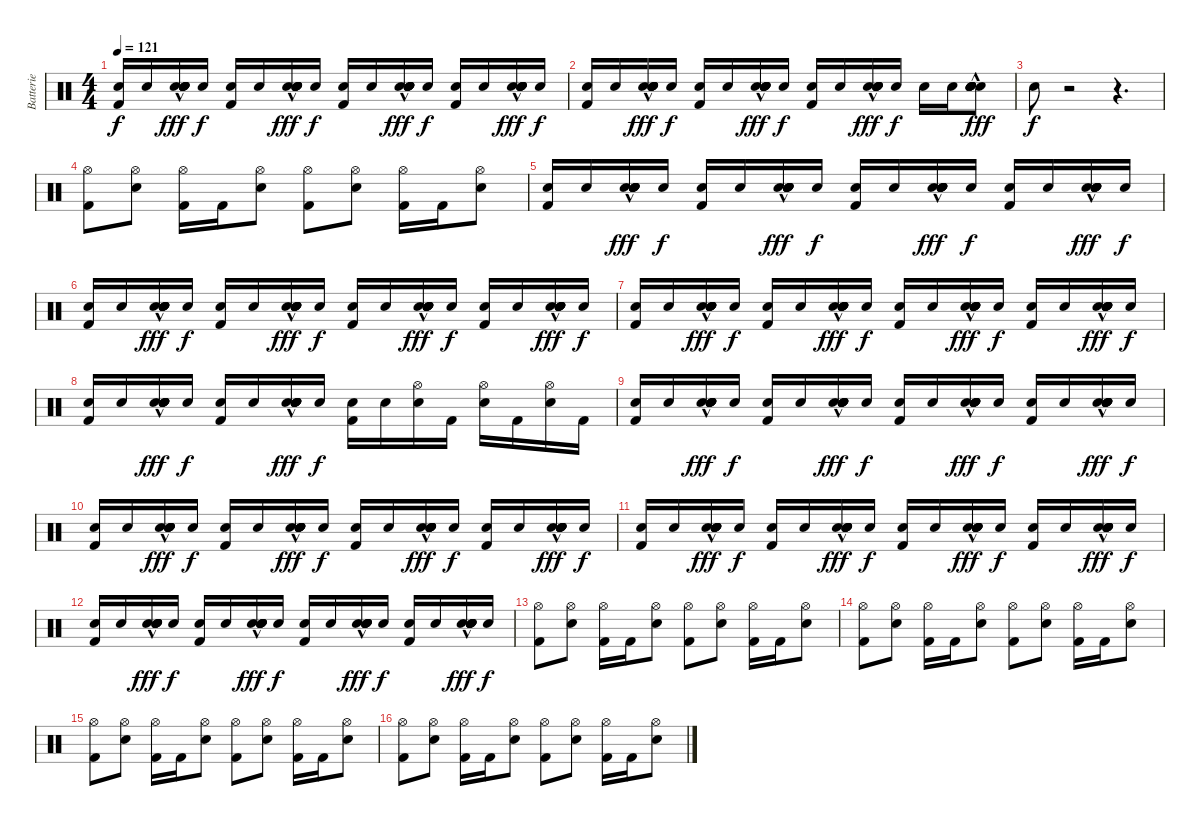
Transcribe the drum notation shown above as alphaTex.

\track ("Batterie" "Batterie") {instrument percussion}
\staff {score}
\articulation defaults
\ts (4 4)
\tempo 121
\clef neutral
\ks c
("Kick (hit) 2" "Electric Snare (hit)").16{dy f} "Electric Snare (hit)".16 ("Electric Snare (hit)"{hac} "Electric Snare (hit)"{hac} "Electric Snare (hit)"{hac} "Electric Snare (hit)"{hac} "Electric Snare (hit)"{hac} "Electric Snare (hit)"{hac}).16{dy fff} "Electric Snare (hit)".16{dy f} ("Kick (hit) 2" "Electric Snare (hit)").16 "Electric Snare (hit)".16 ("Electric Snare (hit)"{hac} "Electric Snare (hit)"{hac} "Electric Snare (hit)"{hac} "Electric Snare (hit)"{hac} "Electric Snare (hit)"{hac} "Electric Snare (hit)"{hac}).16{dy fff} "Electric Snare (hit)".16{dy f} ("Kick (hit) 2" "Electric Snare (hit)").16 "Electric Snare (hit)".16 ("Electric Snare (hit)"{hac} "Electric Snare (hit)"{hac} "Electric Snare (hit)"{hac} "Electric Snare (hit)"{hac} "Electric Snare (hit)"{hac} "Electric Snare (hit)"{hac}).16{dy fff} "Electric Snare (hit)".16{dy f} ("Kick (hit) 2" "Electric Snare (hit)").16 "Electric Snare (hit)".16 ("Electric Snare (hit)"{hac} "Electric Snare (hit)"{hac} "Electric Snare (hit)"{hac} "Electric Snare (hit)"{hac} "Electric Snare (hit)"{hac} "Electric Snare (hit)"{hac}).16{dy fff} "Electric Snare (hit)".16{dy f} |
("Kick (hit) 2" "Electric Snare (hit)").16 "Electric Snare (hit)".16 ("Electric Snare (hit)"{hac} "Electric Snare (hit)"{hac} "Electric Snare (hit)"{hac} "Electric Snare (hit)"{hac} "Electric Snare (hit)"{hac} "Electric Snare (hit)"{hac}).16{dy fff} "Electric Snare (hit)".16{dy f} ("Kick (hit) 2" "Electric Snare (hit)").16 "Electric Snare (hit)".16 ("Electric Snare (hit)"{hac} "Electric Snare (hit)"{hac} "Electric Snare (hit)"{hac} "Electric Snare (hit)"{hac} "Electric Snare (hit)"{hac} "Electric Snare (hit)"{hac}).16{dy fff} "Electric Snare (hit)".16{dy f} ("Kick (hit) 2" "Electric Snare (hit)").16 "Electric Snare (hit)".16 ("Electric Snare (hit)"{hac} "Electric Snare (hit)"{hac} "Electric Snare (hit)"{hac} "Electric Snare (hit)"{hac} "Electric Snare (hit)"{hac} "Electric Snare (hit)"{hac}).16{dy fff} "Electric Snare (hit)".16{dy f} "Electric Snare (hit)".16 "Electric Snare (hit)".16 ("Electric Snare (hit)"{hac} "Electric Snare (hit)"{hac} "Electric Snare (hit)"{hac} "Electric Snare (hit)"{hac} "Electric Snare (hit)"{hac} "Electric Snare (hit)"{hac}).8{dy fff} |
"Electric Snare (hit)".8{dy f} r.2 r.4{d} |
("Kick (hit) 2" "Hi-Hat (open)").8 ("Electric Snare (hit)" "Hi-Hat (open)").8 ("Kick (hit) 2" "Hi-Hat (open)").16 "Kick (hit) 2".16 ("Electric Snare (hit)" "Hi-Hat (open)").8 ("Kick (hit) 2" "Hi-Hat (open)").8 ("Electric Snare (hit)" "Hi-Hat (open)").8 ("Kick (hit) 2" "Hi-Hat (open)").16 "Kick (hit) 2".16 ("Electric Snare (hit)" "Hi-Hat (open)").8 |
("Kick (hit) 2" "Electric Snare (hit)").16 "Electric Snare (hit)".16 ("Electric Snare (hit)"{hac} "Electric Snare (hit)"{hac} "Electric Snare (hit)"{hac} "Electric Snare (hit)"{hac} "Electric Snare (hit)"{hac} "Electric Snare (hit)"{hac}).16{dy fff} "Electric Snare (hit)".16{dy f} ("Kick (hit) 2" "Electric Snare (hit)").16 "Electric Snare (hit)".16 ("Electric Snare (hit)"{hac} "Electric Snare (hit)"{hac} "Electric Snare (hit)"{hac} "Electric Snare (hit)"{hac} "Electric Snare (hit)"{hac} "Electric Snare (hit)"{hac}).16{dy fff} "Electric Snare (hit)".16{dy f} ("Kick (hit) 2" "Electric Snare (hit)").16 "Electric Snare (hit)".16 ("Electric Snare (hit)"{hac} "Electric Snare (hit)"{hac} "Electric Snare (hit)"{hac} "Electric Snare (hit)"{hac} "Electric Snare (hit)"{hac} "Electric Snare (hit)"{hac}).16{dy fff} "Electric Snare (hit)".16{dy f} ("Kick (hit) 2" "Electric Snare (hit)").16 "Electric Snare (hit)".16 ("Electric Snare (hit)"{hac} "Electric Snare (hit)"{hac} "Electric Snare (hit)"{hac} "Electric Snare (hit)"{hac} "Electric Snare (hit)"{hac} "Electric Snare (hit)"{hac}).16{dy fff} "Electric Snare (hit)".16{dy f} |
("Kick (hit) 2" "Electric Snare (hit)").16 "Electric Snare (hit)".16 ("Electric Snare (hit)"{hac} "Electric Snare (hit)"{hac} "Electric Snare (hit)"{hac} "Electric Snare (hit)"{hac} "Electric Snare (hit)"{hac} "Electric Snare (hit)"{hac}).16{dy fff} "Electric Snare (hit)".16{dy f} ("Kick (hit) 2" "Electric Snare (hit)").16 "Electric Snare (hit)".16 ("Electric Snare (hit)"{hac} "Electric Snare (hit)"{hac} "Electric Snare (hit)"{hac} "Electric Snare (hit)"{hac} "Electric Snare (hit)"{hac} "Electric Snare (hit)"{hac}).16{dy fff} "Electric Snare (hit)".16{dy f} ("Kick (hit) 2" "Electric Snare (hit)").16 "Electric Snare (hit)".16 ("Electric Snare (hit)"{hac} "Electric Snare (hit)"{hac} "Electric Snare (hit)"{hac} "Electric Snare (hit)"{hac} "Electric Snare (hit)"{hac} "Electric Snare (hit)"{hac}).16{dy fff} "Electric Snare (hit)".16{dy f} ("Kick (hit) 2" "Electric Snare (hit)").16 "Electric Snare (hit)".16 ("Electric Snare (hit)"{hac} "Electric Snare (hit)"{hac} "Electric Snare (hit)"{hac} "Electric Snare (hit)"{hac} "Electric Snare (hit)"{hac} "Electric Snare (hit)"{hac}).16{dy fff} "Electric Snare (hit)".16{dy f} |
("Kick (hit) 2" "Electric Snare (hit)").16 "Electric Snare (hit)".16 ("Electric Snare (hit)"{hac} "Electric Snare (hit)"{hac} "Electric Snare (hit)"{hac} "Electric Snare (hit)"{hac} "Electric Snare (hit)"{hac} "Electric Snare (hit)"{hac}).16{dy fff} "Electric Snare (hit)".16{dy f} ("Kick (hit) 2" "Electric Snare (hit)").16 "Electric Snare (hit)".16 ("Electric Snare (hit)"{hac} "Electric Snare (hit)"{hac} "Electric Snare (hit)"{hac} "Electric Snare (hit)"{hac} "Electric Snare (hit)"{hac} "Electric Snare (hit)"{hac}).16{dy fff} "Electric Snare (hit)".16{dy f} ("Kick (hit) 2" "Electric Snare (hit)").16 "Electric Snare (hit)".16 ("Electric Snare (hit)"{hac} "Electric Snare (hit)"{hac} "Electric Snare (hit)"{hac} "Electric Snare (hit)"{hac} "Electric Snare (hit)"{hac} "Electric Snare (hit)"{hac}).16{dy fff} "Electric Snare (hit)".16{dy f} ("Kick (hit) 2" "Electric Snare (hit)").16 "Electric Snare (hit)".16 ("Electric Snare (hit)"{hac} "Electric Snare (hit)"{hac} "Electric Snare (hit)"{hac} "Electric Snare (hit)"{hac} "Electric Snare (hit)"{hac} "Electric Snare (hit)"{hac}).16{dy fff} "Electric Snare (hit)".16{dy f} |
("Kick (hit) 2" "Electric Snare (hit)").16 "Electric Snare (hit)".16 ("Electric Snare (hit)"{hac} "Electric Snare (hit)"{hac} "Electric Snare (hit)"{hac} "Electric Snare (hit)"{hac} "Electric Snare (hit)"{hac} "Electric Snare (hit)"{hac}).16{dy fff} "Electric Snare (hit)".16{dy f} ("Kick (hit) 2" "Electric Snare (hit)").16 "Electric Snare (hit)".16 ("Electric Snare (hit)"{hac} "Electric Snare (hit)"{hac} "Electric Snare (hit)"{hac} "Electric Snare (hit)"{hac} "Electric Snare (hit)"{hac} "Electric Snare (hit)"{hac}).16{dy fff} "Electric Snare (hit)".16{dy f} ("Kick (hit) 2" "Electric Snare (hit)").16 "Electric Snare (hit)".16 ("Hi-Hat (open)" "Electric Snare (hit)").16 "Kick (hit) 2".16 ("Hi-Hat (open)" "Electric Snare (hit)").16 "Kick (hit) 2".16 ("Hi-Hat (open)" "Electric Snare (hit)").16 "Kick (hit) 2".16 |
("Kick (hit) 2" "Electric Snare (hit)").16 "Electric Snare (hit)".16 ("Electric Snare (hit)"{hac} "Electric Snare (hit)"{hac} "Electric Snare (hit)"{hac} "Electric Snare (hit)"{hac} "Electric Snare (hit)"{hac} "Electric Snare (hit)"{hac}).16{dy fff} "Electric Snare (hit)".16{dy f} ("Kick (hit) 2" "Electric Snare (hit)").16 "Electric Snare (hit)".16 ("Electric Snare (hit)"{hac} "Electric Snare (hit)"{hac} "Electric Snare (hit)"{hac} "Electric Snare (hit)"{hac} "Electric Snare (hit)"{hac} "Electric Snare (hit)"{hac}).16{dy fff} "Electric Snare (hit)".16{dy f} ("Kick (hit) 2" "Electric Snare (hit)").16 "Electric Snare (hit)".16 ("Electric Snare (hit)"{hac} "Electric Snare (hit)"{hac} "Electric Snare (hit)"{hac} "Electric Snare (hit)"{hac} "Electric Snare (hit)"{hac} "Electric Snare (hit)"{hac}).16{dy fff} "Electric Snare (hit)".16{dy f} ("Kick (hit) 2" "Electric Snare (hit)").16 "Electric Snare (hit)".16 ("Electric Snare (hit)"{hac} "Electric Snare (hit)"{hac} "Electric Snare (hit)"{hac} "Electric Snare (hit)"{hac} "Electric Snare (hit)"{hac} "Electric Snare (hit)"{hac}).16{dy fff} "Electric Snare (hit)".16{dy f} |
("Kick (hit) 2" "Electric Snare (hit)").16 "Electric Snare (hit)".16 ("Electric Snare (hit)"{hac} "Electric Snare (hit)"{hac} "Electric Snare (hit)"{hac} "Electric Snare (hit)"{hac} "Electric Snare (hit)"{hac} "Electric Snare (hit)"{hac}).16{dy fff} "Electric Snare (hit)".16{dy f} ("Kick (hit) 2" "Electric Snare (hit)").16 "Electric Snare (hit)".16 ("Electric Snare (hit)"{hac} "Electric Snare (hit)"{hac} "Electric Snare (hit)"{hac} "Electric Snare (hit)"{hac} "Electric Snare (hit)"{hac} "Electric Snare (hit)"{hac}).16{dy fff} "Electric Snare (hit)".16{dy f} ("Kick (hit) 2" "Electric Snare (hit)").16 "Electric Snare (hit)".16 ("Electric Snare (hit)"{hac} "Electric Snare (hit)"{hac} "Electric Snare (hit)"{hac} "Electric Snare (hit)"{hac} "Electric Snare (hit)"{hac} "Electric Snare (hit)"{hac}).16{dy fff} "Electric Snare (hit)".16{dy f} ("Kick (hit) 2" "Electric Snare (hit)").16 "Electric Snare (hit)".16 ("Electric Snare (hit)"{hac} "Electric Snare (hit)"{hac} "Electric Snare (hit)"{hac} "Electric Snare (hit)"{hac} "Electric Snare (hit)"{hac} "Electric Snare (hit)"{hac}).16{dy fff} "Electric Snare (hit)".16{dy f} |
("Kick (hit) 2" "Electric Snare (hit)").16 "Electric Snare (hit)".16 ("Electric Snare (hit)"{hac} "Electric Snare (hit)"{hac} "Electric Snare (hit)"{hac} "Electric Snare (hit)"{hac} "Electric Snare (hit)"{hac} "Electric Snare (hit)"{hac}).16{dy fff} "Electric Snare (hit)".16{dy f} ("Kick (hit) 2" "Electric Snare (hit)").16 "Electric Snare (hit)".16 ("Electric Snare (hit)"{hac} "Electric Snare (hit)"{hac} "Electric Snare (hit)"{hac} "Electric Snare (hit)"{hac} "Electric Snare (hit)"{hac} "Electric Snare (hit)"{hac}).16{dy fff} "Electric Snare (hit)".16{dy f} ("Kick (hit) 2" "Electric Snare (hit)").16 "Electric Snare (hit)".16 ("Electric Snare (hit)"{hac} "Electric Snare (hit)"{hac} "Electric Snare (hit)"{hac} "Electric Snare (hit)"{hac} "Electric Snare (hit)"{hac} "Electric Snare (hit)"{hac}).16{dy fff} "Electric Snare (hit)".16{dy f} ("Kick (hit) 2" "Electric Snare (hit)").16 "Electric Snare (hit)".16 ("Electric Snare (hit)"{hac} "Electric Snare (hit)"{hac} "Electric Snare (hit)"{hac} "Electric Snare (hit)"{hac} "Electric Snare (hit)"{hac} "Electric Snare (hit)"{hac}).16{dy fff} "Electric Snare (hit)".16{dy f} |
("Kick (hit) 2" "Electric Snare (hit)").16 "Electric Snare (hit)".16 ("Electric Snare (hit)"{hac} "Electric Snare (hit)"{hac} "Electric Snare (hit)"{hac} "Electric Snare (hit)"{hac} "Electric Snare (hit)"{hac} "Electric Snare (hit)"{hac}).16{dy fff} "Electric Snare (hit)".16{dy f} ("Kick (hit) 2" "Electric Snare (hit)").16 "Electric Snare (hit)".16 ("Electric Snare (hit)"{hac} "Electric Snare (hit)"{hac} "Electric Snare (hit)"{hac} "Electric Snare (hit)"{hac} "Electric Snare (hit)"{hac} "Electric Snare (hit)"{hac}).16{dy fff} "Electric Snare (hit)".16{dy f} ("Kick (hit) 2" "Electric Snare (hit)").16 "Electric Snare (hit)".16 ("Electric Snare (hit)"{hac} "Electric Snare (hit)"{hac} "Electric Snare (hit)"{hac} "Electric Snare (hit)"{hac} "Electric Snare (hit)"{hac} "Electric Snare (hit)"{hac}).16{dy fff} "Electric Snare (hit)".16{dy f} ("Kick (hit) 2" "Electric Snare (hit)").16 "Electric Snare (hit)".16 ("Electric Snare (hit)"{hac} "Electric Snare (hit)"{hac} "Electric Snare (hit)"{hac} "Electric Snare (hit)"{hac} "Electric Snare (hit)"{hac} "Electric Snare (hit)"{hac}).16{dy fff} "Electric Snare (hit)".16{dy f} |
("Kick (hit) 2" "Hi-Hat (open)").8 ("Electric Snare (hit)" "Hi-Hat (open)").8 ("Kick (hit) 2" "Hi-Hat (open)").16 "Kick (hit) 2".16 ("Electric Snare (hit)" "Hi-Hat (open)").8 ("Kick (hit) 2" "Hi-Hat (open)").8 ("Electric Snare (hit)" "Hi-Hat (open)").8 ("Kick (hit) 2" "Hi-Hat (open)").16 "Kick (hit) 2".16 ("Electric Snare (hit)" "Hi-Hat (open)").8 |
("Kick (hit) 2" "Hi-Hat (open)").8 ("Electric Snare (hit)" "Hi-Hat (open)").8 ("Kick (hit) 2" "Hi-Hat (open)").16 "Kick (hit) 2".16 ("Electric Snare (hit)" "Hi-Hat (open)").8 ("Kick (hit) 2" "Hi-Hat (open)").8 ("Electric Snare (hit)" "Hi-Hat (open)").8 ("Kick (hit) 2" "Hi-Hat (open)").16 "Kick (hit) 2".16 ("Electric Snare (hit)" "Hi-Hat (open)").8 |
("Kick (hit) 2" "Hi-Hat (open)").8 ("Electric Snare (hit)" "Hi-Hat (open)").8 ("Kick (hit) 2" "Hi-Hat (open)").16 "Kick (hit) 2".16 ("Electric Snare (hit)" "Hi-Hat (open)").8 ("Kick (hit) 2" "Hi-Hat (open)").8 ("Electric Snare (hit)" "Hi-Hat (open)").8 ("Kick (hit) 2" "Hi-Hat (open)").16 "Kick (hit) 2".16 ("Electric Snare (hit)" "Hi-Hat (open)").8 |
("Kick (hit) 2" "Hi-Hat (open)").8 ("Electric Snare (hit)" "Hi-Hat (open)").8 ("Kick (hit) 2" "Hi-Hat (open)").16 "Kick (hit) 2".16 ("Electric Snare (hit)" "Hi-Hat (open)").8 ("Kick (hit) 2" "Hi-Hat (open)").8 ("Electric Snare (hit)" "Hi-Hat (open)").8 ("Kick (hit) 2" "Hi-Hat (open)").16 "Kick (hit) 2".16 ("Electric Snare (hit)" "Hi-Hat (open)").8
